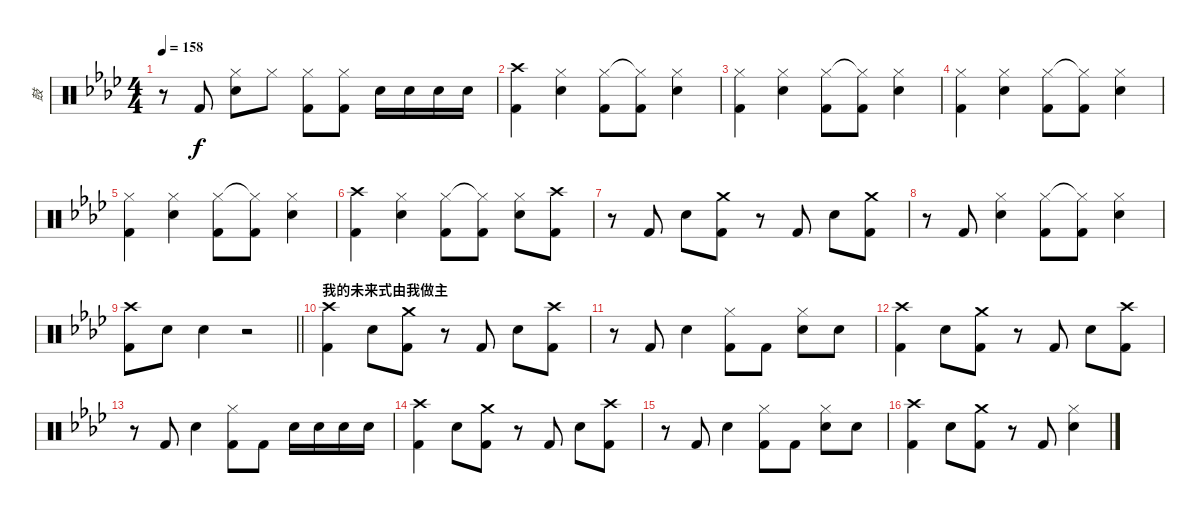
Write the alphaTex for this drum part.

\track ("鼓" "鼓") {instrument percussion}
\staff {score}
\articulation defaults
\ts (4 4)
\tempo 158
\clef neutral
\ks ab
r.8{dy f} "Kick (hit) 2".8 ("Hi-Hat (closed)" "Electric Snare (hit)").8 "Hi-Hat (closed)".8 ("Hi-Hat (closed)" "Kick (hit) 2").8 ("Hi-Hat (closed)" "Kick (hit) 2").8 "Electric Snare (hit)".16 "Electric Snare (hit)".16 "Electric Snare (hit)".16 "Electric Snare (hit)".16 |
("Crash high (hit)" "Kick (hit) 2").4 ("Hi-Hat (closed)" "Snare (hit) 2").4 ("Hi-Hat (closed)" "Kick (hit) 2").8 ("Hi-Hat (closed)"{t} "Kick (hit) 2").8 ("Hi-Hat (closed)" "Electric Snare (hit)").4 |
("Hi-Hat (closed)" "Kick (hit) 2").4 ("Hi-Hat (closed)" "Snare (hit) 2").4 ("Hi-Hat (closed)" "Kick (hit) 2").8 ("Hi-Hat (closed)"{t} "Kick (hit) 2").8 ("Hi-Hat (closed)" "Electric Snare (hit)").4 |
("Hi-Hat (closed)" "Kick (hit) 2").4 ("Hi-Hat (closed)" "Snare (hit) 2").4 ("Hi-Hat (closed)" "Kick (hit) 2").8 ("Hi-Hat (closed)"{t} "Kick (hit) 2").8 ("Hi-Hat (closed)" "Electric Snare (hit)").4 |
("Hi-Hat (closed)" "Kick (hit) 2").4 ("Hi-Hat (closed)" "Snare (hit) 2").4 ("Hi-Hat (closed)" "Kick (hit) 2").8 ("Hi-Hat (closed)"{t} "Kick (hit) 2").8 ("Hi-Hat (closed)" "Electric Snare (hit)").4 |
("Crash high (hit)" "Kick (hit) 2").4 ("Hi-Hat (closed)" "Snare (hit) 2").4 ("Hi-Hat (closed)" "Kick (hit) 2").8 ("Hi-Hat (closed)"{t} "Kick (hit) 2").8 ("Hi-Hat (closed)" "Electric Snare (hit)").8 ("Crash high (hit)" "Kick (hit) 2").8 |
r.8 "Kick (hit) 2".8 "Electric Snare (hit)".8 ("Crash medium (hit)" "Kick (hit) 2").8 r.8 "Kick (hit) 2".8 "Electric Snare (hit)".8 ("Crash medium (hit)" "Kick (hit) 2").8 |
r.8 "Kick (hit) 2".8 ("Hi-Hat (closed)" "Electric Snare (hit)").4 ("Hi-Hat (closed)" "Kick (hit) 2").8 ("Hi-Hat (closed)"{t} "Kick (hit) 2").8 ("Hi-Hat (closed)" "Electric Snare (hit)").4 |
\barLineRight lightlight
("Crash high (hit)" "Kick (hit) 2").8 "Electric Snare (hit)".8 "Electric Snare (hit)".4 r.2 |
\section ("" "我的未来式由我做主")
("Crash high (hit)" "Kick (hit) 2").4 "Electric Snare (hit)".8 ("Crash medium (hit)" "Kick (hit) 2").8 r.8 "Kick (hit) 2".8 "Electric Snare (hit)".8 ("Crash high (hit)" "Kick (hit) 2").8 |
r.8 "Kick (hit) 2".8 "Electric Snare (hit)".4 ("Hi-Hat (closed)" "Kick (hit) 2").8 "Kick (hit) 2".8 ("Hi-Hat (closed)" "Electric Snare (hit)").8 "Electric Snare (hit)".8 |
("Crash high (hit)" "Kick (hit) 2").4 "Electric Snare (hit)".8 ("Crash medium (hit)" "Kick (hit) 2").8 r.8 "Kick (hit) 2".8 "Electric Snare (hit)".8 ("Crash high (hit)" "Kick (hit) 2").8 |
r.8 "Kick (hit) 2".8 "Electric Snare (hit)".4 ("Hi-Hat (closed)" "Kick (hit) 2").8 "Kick (hit) 2".8 "Electric Snare (hit)".16 "Electric Snare (hit)".16 "Electric Snare (hit)".16 "Electric Snare (hit)".16 |
("Crash high (hit)" "Kick (hit) 2").4 "Electric Snare (hit)".8 ("Crash medium (hit)" "Kick (hit) 2").8 r.8 "Kick (hit) 2".8 "Electric Snare (hit)".8 ("Crash high (hit)" "Kick (hit) 2").8 |
r.8 "Kick (hit) 2".8 "Electric Snare (hit)".4 ("Hi-Hat (closed)" "Kick (hit) 2").8 "Kick (hit) 2".8 ("Hi-Hat (closed)" "Electric Snare (hit)").8 "Electric Snare (hit)".8 |
("Crash high (hit)" "Kick (hit) 2").4 "Electric Snare (hit)".8 ("Crash medium (hit)" "Kick (hit) 2").8 r.8 "Kick (hit) 2".8 ("Hi-Hat (closed)" "Electric Snare (hit)").4
